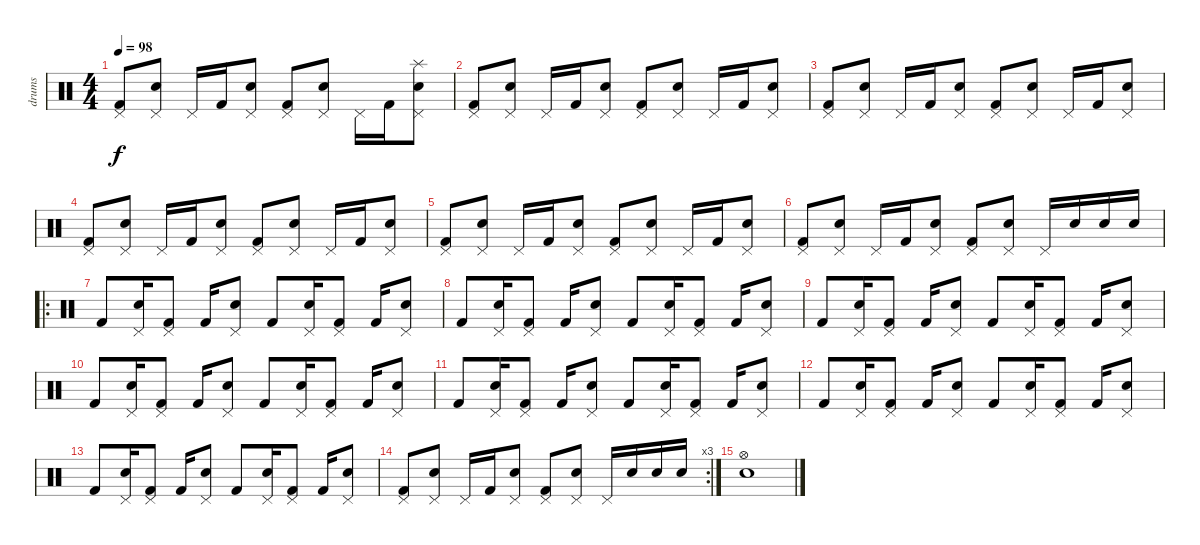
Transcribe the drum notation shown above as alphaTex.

\track ("drums" "drums") {instrument percussion}
\staff {score}
\articulation defaults
\ts (4 4)
\tempo 98
\clef neutral
\ks c
("Pedal Hi-Hat (hit)" "Kick (hit) 2").8{dy f} ("Pedal Hi-Hat (hit)" "Electric Snare (hit)").8 "Pedal Hi-Hat (hit)".16 "Kick (hit) 2".16 ("Pedal Hi-Hat (hit)" "Electric Snare (hit)").8 ("Pedal Hi-Hat (hit)" "Kick (hit) 2").8 ("Pedal Hi-Hat (hit)" "Electric Snare (hit)").8 "Pedal Hi-Hat (hit)".16 "Kick (hit) 2".16 ("Splash (hit)" "Pedal Hi-Hat (hit)" "Electric Snare (hit)").8 |
("Pedal Hi-Hat (hit)" "Kick (hit) 2").8 ("Pedal Hi-Hat (hit)" "Electric Snare (hit)").8 "Pedal Hi-Hat (hit)".16 "Kick (hit) 2".16 ("Pedal Hi-Hat (hit)" "Electric Snare (hit)").8 ("Pedal Hi-Hat (hit)" "Kick (hit) 2").8 ("Pedal Hi-Hat (hit)" "Electric Snare (hit)").8 "Pedal Hi-Hat (hit)".16 "Kick (hit) 2".16 ("Pedal Hi-Hat (hit)" "Electric Snare (hit)").8 |
("Pedal Hi-Hat (hit)" "Kick (hit) 2").8 ("Pedal Hi-Hat (hit)" "Electric Snare (hit)").8 "Pedal Hi-Hat (hit)".16 "Kick (hit) 2".16 ("Pedal Hi-Hat (hit)" "Electric Snare (hit)").8 ("Pedal Hi-Hat (hit)" "Kick (hit) 2").8 ("Pedal Hi-Hat (hit)" "Electric Snare (hit)").8 "Pedal Hi-Hat (hit)".16 "Kick (hit) 2".16 ("Pedal Hi-Hat (hit)" "Electric Snare (hit)").8 |
("Pedal Hi-Hat (hit)" "Kick (hit) 2").8 ("Pedal Hi-Hat (hit)" "Electric Snare (hit)").8 "Pedal Hi-Hat (hit)".16 "Kick (hit) 2".16 ("Pedal Hi-Hat (hit)" "Electric Snare (hit)").8 ("Pedal Hi-Hat (hit)" "Kick (hit) 2").8 ("Pedal Hi-Hat (hit)" "Electric Snare (hit)").8 "Pedal Hi-Hat (hit)".16 "Kick (hit) 2".16 ("Pedal Hi-Hat (hit)" "Electric Snare (hit)").8 |
("Pedal Hi-Hat (hit)" "Kick (hit) 2").8 ("Pedal Hi-Hat (hit)" "Electric Snare (hit)").8 "Pedal Hi-Hat (hit)".16 "Kick (hit) 2".16 ("Pedal Hi-Hat (hit)" "Electric Snare (hit)").8 ("Pedal Hi-Hat (hit)" "Kick (hit) 2").8 ("Pedal Hi-Hat (hit)" "Electric Snare (hit)").8 "Pedal Hi-Hat (hit)".16 "Kick (hit) 2".16 ("Pedal Hi-Hat (hit)" "Electric Snare (hit)").8 |
("Pedal Hi-Hat (hit)" "Kick (hit) 2").8 ("Pedal Hi-Hat (hit)" "Electric Snare (hit)").8 "Pedal Hi-Hat (hit)".16 "Kick (hit) 2".16 ("Pedal Hi-Hat (hit)" "Electric Snare (hit)").8 ("Pedal Hi-Hat (hit)" "Kick (hit) 2").8 ("Pedal Hi-Hat (hit)" "Electric Snare (hit)").8 "Pedal Hi-Hat (hit)".16 "Electric Snare (hit)".16 "Electric Snare (hit)".16 "Electric Snare (hit)".16 |
\ro "Kick (hit) 2".8
("Pedal Hi-Hat (hit)" "Electric Snare (hit)").16 ("Pedal Hi-Hat (hit)" "Kick (hit) 2").8 "Kick (hit) 2".16 ("Pedal Hi-Hat (hit)" "Electric Snare (hit)").8 "Kick (hit) 2".8 ("Pedal Hi-Hat (hit)" "Electric Snare (hit)").16 ("Pedal Hi-Hat (hit)" "Kick (hit) 2").8 "Kick (hit) 2".16 ("Pedal Hi-Hat (hit)" "Electric Snare (hit)").8 |
"Kick (hit) 2".8 ("Pedal Hi-Hat (hit)" "Electric Snare (hit)").16 ("Pedal Hi-Hat (hit)" "Kick (hit) 2").8 "Kick (hit) 2".16 ("Pedal Hi-Hat (hit)" "Electric Snare (hit)").8 "Kick (hit) 2".8 ("Pedal Hi-Hat (hit)" "Electric Snare (hit)").16 ("Pedal Hi-Hat (hit)" "Kick (hit) 2").8 "Kick (hit) 2".16 ("Pedal Hi-Hat (hit)" "Electric Snare (hit)").8 |
"Kick (hit) 2".8 ("Pedal Hi-Hat (hit)" "Electric Snare (hit)").16 ("Pedal Hi-Hat (hit)" "Kick (hit) 2").8 "Kick (hit) 2".16 ("Pedal Hi-Hat (hit)" "Electric Snare (hit)").8 "Kick (hit) 2".8 ("Pedal Hi-Hat (hit)" "Electric Snare (hit)").16 ("Pedal Hi-Hat (hit)" "Kick (hit) 2").8 "Kick (hit) 2".16 ("Pedal Hi-Hat (hit)" "Electric Snare (hit)").8 |
"Kick (hit) 2".8 ("Pedal Hi-Hat (hit)" "Electric Snare (hit)").16 ("Pedal Hi-Hat (hit)" "Kick (hit) 2").8 "Kick (hit) 2".16 ("Pedal Hi-Hat (hit)" "Electric Snare (hit)").8 "Kick (hit) 2".8 ("Pedal Hi-Hat (hit)" "Electric Snare (hit)").16 ("Pedal Hi-Hat (hit)" "Kick (hit) 2").8 "Kick (hit) 2".16 ("Pedal Hi-Hat (hit)" "Electric Snare (hit)").8 |
"Kick (hit) 2".8 ("Pedal Hi-Hat (hit)" "Electric Snare (hit)").16 ("Pedal Hi-Hat (hit)" "Kick (hit) 2").8 "Kick (hit) 2".16 ("Pedal Hi-Hat (hit)" "Electric Snare (hit)").8 "Kick (hit) 2".8 ("Pedal Hi-Hat (hit)" "Electric Snare (hit)").16 ("Pedal Hi-Hat (hit)" "Kick (hit) 2").8 "Kick (hit) 2".16 ("Pedal Hi-Hat (hit)" "Electric Snare (hit)").8 |
"Kick (hit) 2".8 ("Pedal Hi-Hat (hit)" "Electric Snare (hit)").16 ("Pedal Hi-Hat (hit)" "Kick (hit) 2").8 "Kick (hit) 2".16 ("Pedal Hi-Hat (hit)" "Electric Snare (hit)").8 "Kick (hit) 2".8 ("Pedal Hi-Hat (hit)" "Electric Snare (hit)").16 ("Pedal Hi-Hat (hit)" "Kick (hit) 2").8 "Kick (hit) 2".16 ("Pedal Hi-Hat (hit)" "Electric Snare (hit)").8 |
"Kick (hit) 2".8 ("Pedal Hi-Hat (hit)" "Electric Snare (hit)").16 ("Pedal Hi-Hat (hit)" "Kick (hit) 2").8 "Kick (hit) 2".16 ("Pedal Hi-Hat (hit)" "Electric Snare (hit)").8 "Kick (hit) 2".8 ("Pedal Hi-Hat (hit)" "Electric Snare (hit)").16 ("Pedal Hi-Hat (hit)" "Kick (hit) 2").8 "Kick (hit) 2".16 ("Pedal Hi-Hat (hit)" "Electric Snare (hit)").8 |
\rc 3
("Pedal Hi-Hat (hit)" "Kick (hit) 2").8 ("Pedal Hi-Hat (hit)" "Electric Snare (hit)").8 "Pedal Hi-Hat (hit)".16 "Kick (hit) 2".16 ("Pedal Hi-Hat (hit)" "Electric Snare (hit)").8 ("Pedal Hi-Hat (hit)" "Kick (hit) 2").8 ("Pedal Hi-Hat (hit)" "Electric Snare (hit)").8 "Pedal Hi-Hat (hit)".16 "Electric Snare (hit)".16 "Electric Snare (hit)".16 "Electric Snare (hit)".16 |
("Hi-Hat (open)" "Electric Snare (hit)").1
